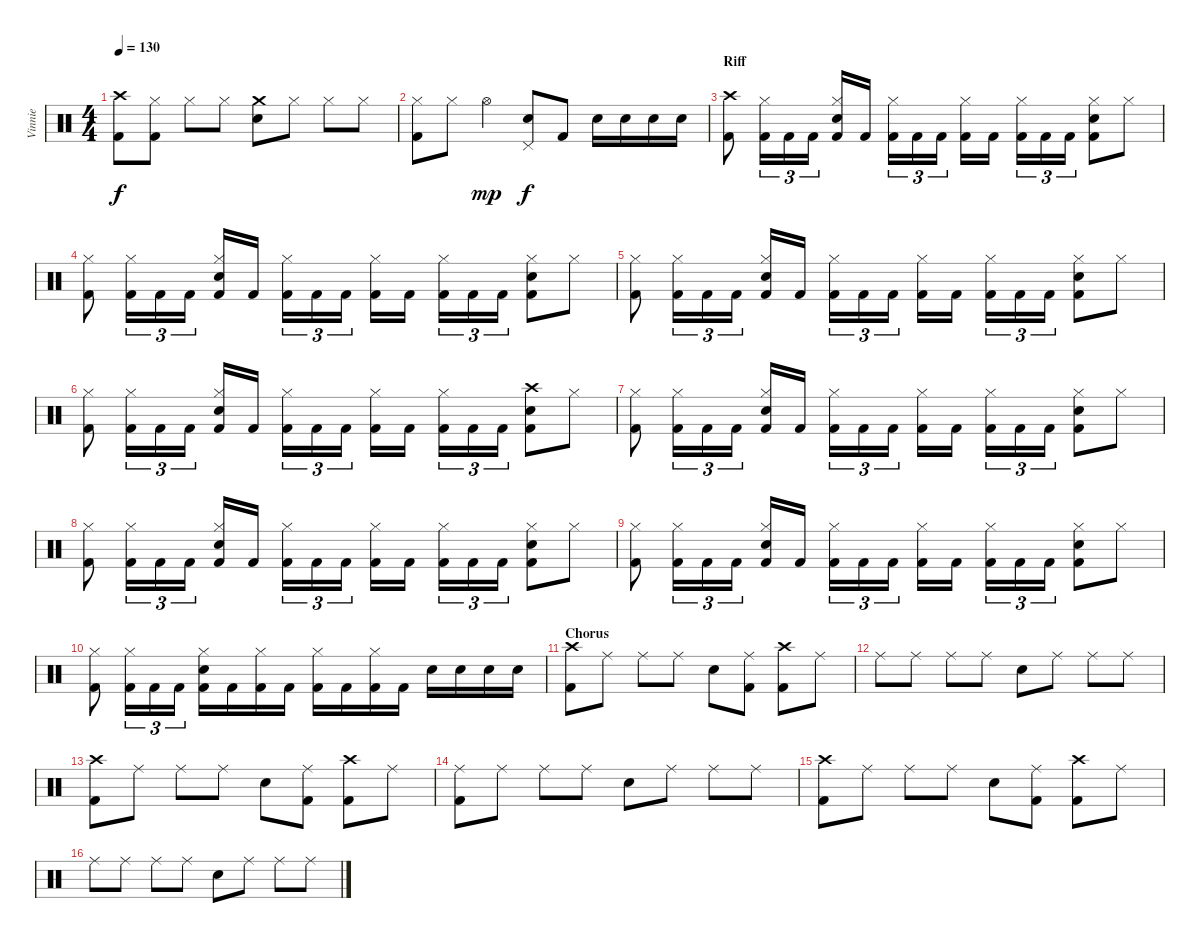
\track ("Vinnie" "Vinnie") {instrument percussion}
\staff {score}
\articulation defaults
\ts (4 4)
\tempo 130
\clef neutral
\ks c
("Crash high (hit)" "Kick (hit) 2").8{dy f} ("Hi-Hat (closed)" "Kick (hit) 2").8 "Hi-Hat (closed)".8 "Hi-Hat (closed)".8 ("Crash medium (hit)" "Electric Snare (hit)").8 "Hi-Hat (closed)".8 "Hi-Hat (closed)".8 "Hi-Hat (closed)".8 |
("Hi-Hat (closed)" "Kick (hit) 2").8 "Hi-Hat (closed)".8 "Hi-Hat (open)".4{dy mp} ("Pedal Hi-Hat (hit)" "Electric Snare (hit)").8{dy f} "Kick (hit) 2".8 "Electric Snare (hit)".16 "Electric Snare (hit)".16 "Electric Snare (hit)".16 "Electric Snare (hit)".16 |
\section ("" "Riff")
("Crash high (hit)" "Kick (hit) 2").8 ("Hi-Hat (closed)" "Kick (hit) 2").16{tu (3 2)} "Kick (hit) 2".16{tu (3 2)} "Kick (hit) 2".16{tu (3 2)} ("Hi-Hat (closed)" "Electric Snare (hit)" "Kick (hit) 2").16 "Kick (hit) 2".16 ("Hi-Hat (closed)" "Kick (hit) 2").16{tu (3 2)} "Kick (hit) 2".16{tu (3 2)} "Kick (hit) 2".16{tu (3 2)} ("Hi-Hat (closed)" "Kick (hit) 2").16 "Kick (hit) 2".16 ("Hi-Hat (closed)" "Kick (hit) 2").16{tu (3 2)} "Kick (hit) 2".16{tu (3 2)} "Kick (hit) 2".16{tu (3 2)} ("Hi-Hat (closed)" "Electric Snare (hit)" "Kick (hit) 2").8 "Hi-Hat (closed)".8 |
("Hi-Hat (closed)" "Kick (hit) 2").8 ("Hi-Hat (closed)" "Kick (hit) 2").16{tu (3 2)} "Kick (hit) 2".16{tu (3 2)} "Kick (hit) 2".16{tu (3 2)} ("Hi-Hat (closed)" "Electric Snare (hit)" "Kick (hit) 2").16 "Kick (hit) 2".16 ("Hi-Hat (closed)" "Kick (hit) 2").16{tu (3 2)} "Kick (hit) 2".16{tu (3 2)} "Kick (hit) 2".16{tu (3 2)} ("Hi-Hat (closed)" "Kick (hit) 2").16 "Kick (hit) 2".16 ("Hi-Hat (closed)" "Kick (hit) 2").16{tu (3 2)} "Kick (hit) 2".16{tu (3 2)} "Kick (hit) 2".16{tu (3 2)} ("Hi-Hat (closed)" "Electric Snare (hit)" "Kick (hit) 2").8 "Hi-Hat (closed)".8 |
("Hi-Hat (closed)" "Kick (hit) 2").8 ("Hi-Hat (closed)" "Kick (hit) 2").16{tu (3 2)} "Kick (hit) 2".16{tu (3 2)} "Kick (hit) 2".16{tu (3 2)} ("Hi-Hat (closed)" "Electric Snare (hit)" "Kick (hit) 2").16 "Kick (hit) 2".16 ("Hi-Hat (closed)" "Kick (hit) 2").16{tu (3 2)} "Kick (hit) 2".16{tu (3 2)} "Kick (hit) 2".16{tu (3 2)} ("Hi-Hat (closed)" "Kick (hit) 2").16 "Kick (hit) 2".16 ("Hi-Hat (closed)" "Kick (hit) 2").16{tu (3 2)} "Kick (hit) 2".16{tu (3 2)} "Kick (hit) 2".16{tu (3 2)} ("Hi-Hat (closed)" "Electric Snare (hit)" "Kick (hit) 2").8 "Hi-Hat (closed)".8 |
("Hi-Hat (closed)" "Kick (hit) 2").8 ("Hi-Hat (closed)" "Kick (hit) 2").16{tu (3 2)} "Kick (hit) 2".16{tu (3 2)} "Kick (hit) 2".16{tu (3 2)} ("Hi-Hat (closed)" "Electric Snare (hit)" "Kick (hit) 2").16 "Kick (hit) 2".16 ("Hi-Hat (closed)" "Kick (hit) 2").16{tu (3 2)} "Kick (hit) 2".16{tu (3 2)} "Kick (hit) 2".16{tu (3 2)} ("Hi-Hat (closed)" "Kick (hit) 2").16 "Kick (hit) 2".16 ("Hi-Hat (closed)" "Kick (hit) 2").16{tu (3 2)} "Kick (hit) 2".16{tu (3 2)} "Kick (hit) 2".16{tu (3 2)} ("Crash high (hit)" "Electric Snare (hit)" "Kick (hit) 2").8 "Hi-Hat (closed)".8 |
("Hi-Hat (closed)" "Kick (hit) 2").8 ("Hi-Hat (closed)" "Kick (hit) 2").16{tu (3 2)} "Kick (hit) 2".16{tu (3 2)} "Kick (hit) 2".16{tu (3 2)} ("Hi-Hat (closed)" "Electric Snare (hit)" "Kick (hit) 2").16 "Kick (hit) 2".16 ("Hi-Hat (closed)" "Kick (hit) 2").16{tu (3 2)} "Kick (hit) 2".16{tu (3 2)} "Kick (hit) 2".16{tu (3 2)} ("Hi-Hat (closed)" "Kick (hit) 2").16 "Kick (hit) 2".16 ("Hi-Hat (closed)" "Kick (hit) 2").16{tu (3 2)} "Kick (hit) 2".16{tu (3 2)} "Kick (hit) 2".16{tu (3 2)} ("Hi-Hat (closed)" "Electric Snare (hit)" "Kick (hit) 2").8 "Hi-Hat (closed)".8 |
("Hi-Hat (closed)" "Kick (hit) 2").8 ("Hi-Hat (closed)" "Kick (hit) 2").16{tu (3 2)} "Kick (hit) 2".16{tu (3 2)} "Kick (hit) 2".16{tu (3 2)} ("Hi-Hat (closed)" "Electric Snare (hit)" "Kick (hit) 2").16 "Kick (hit) 2".16 ("Hi-Hat (closed)" "Kick (hit) 2").16{tu (3 2)} "Kick (hit) 2".16{tu (3 2)} "Kick (hit) 2".16{tu (3 2)} ("Hi-Hat (closed)" "Kick (hit) 2").16 "Kick (hit) 2".16 ("Hi-Hat (closed)" "Kick (hit) 2").16{tu (3 2)} "Kick (hit) 2".16{tu (3 2)} "Kick (hit) 2".16{tu (3 2)} ("Hi-Hat (closed)" "Electric Snare (hit)" "Kick (hit) 2").8 "Hi-Hat (closed)".8 |
("Hi-Hat (closed)" "Kick (hit) 2").8 ("Hi-Hat (closed)" "Kick (hit) 2").16{tu (3 2)} "Kick (hit) 2".16{tu (3 2)} "Kick (hit) 2".16{tu (3 2)} ("Hi-Hat (closed)" "Electric Snare (hit)" "Kick (hit) 2").16 "Kick (hit) 2".16 ("Hi-Hat (closed)" "Kick (hit) 2").16{tu (3 2)} "Kick (hit) 2".16{tu (3 2)} "Kick (hit) 2".16{tu (3 2)} ("Hi-Hat (closed)" "Kick (hit) 2").16 "Kick (hit) 2".16 ("Hi-Hat (closed)" "Kick (hit) 2").16{tu (3 2)} "Kick (hit) 2".16{tu (3 2)} "Kick (hit) 2".16{tu (3 2)} ("Hi-Hat (closed)" "Electric Snare (hit)" "Kick (hit) 2").8 "Hi-Hat (closed)".8 |
("Hi-Hat (closed)" "Kick (hit) 2").8 ("Hi-Hat (closed)" "Kick (hit) 2").16{tu (3 2)} "Kick (hit) 2".16{tu (3 2)} "Kick (hit) 2".16{tu (3 2)} ("Hi-Hat (closed)" "Electric Snare (hit)" "Kick (hit) 2").16 "Kick (hit) 2".16 ("Hi-Hat (closed)" "Kick (hit) 2").16 "Kick (hit) 2".16 ("Hi-Hat (closed)" "Kick (hit) 2").16 "Kick (hit) 2".16 ("Hi-Hat (closed)" "Kick (hit) 2").16 "Kick (hit) 2".16 "Electric Snare (hit)".16 "Electric Snare (hit)".16 "Electric Snare (hit)".16 "Electric Snare (hit)".16 |
\section ("" "Chorus")
("Crash high (hit)" "Kick (hit) 2").8 "Ride (middle)".8 "Ride (middle)".8 "Ride (middle)".8 "Electric Snare (hit)".8 ("Ride (middle)" "Kick (hit) 2").8 ("Crash high (hit)" "Kick (hit) 2").8 "Ride (middle)".8 |
"Ride (middle)".8 "Ride (middle)".8 "Ride (middle)".8 "Ride (middle)".8 "Electric Snare (hit)".8 "Ride (middle)".8 "Ride (middle)".8 "Ride (middle)".8 |
("Crash high (hit)" "Kick (hit) 2").8 "Ride (middle)".8 "Ride (middle)".8 "Ride (middle)".8 "Electric Snare (hit)".8 ("Ride (middle)" "Kick (hit) 2").8 ("Crash high (hit)" "Kick (hit) 2").8 "Ride (middle)".8 |
("Ride (middle)" "Kick (hit) 2").8 "Ride (middle)".8 "Ride (middle)".8 "Ride (middle)".8 "Electric Snare (hit)".8 "Ride (middle)".8 "Ride (middle)".8 "Ride (middle)".8 |
("Crash high (hit)" "Kick (hit) 2").8 "Ride (middle)".8 "Ride (middle)".8 "Ride (middle)".8 "Electric Snare (hit)".8 ("Ride (middle)" "Kick (hit) 2").8 ("Crash high (hit)" "Kick (hit) 2").8 "Ride (middle)".8 |
"Ride (middle)".8 "Ride (middle)".8 "Ride (middle)".8 "Ride (middle)".8 "Electric Snare (hit)".8 "Ride (middle)".8 "Ride (middle)".8 "Ride (middle)".8
